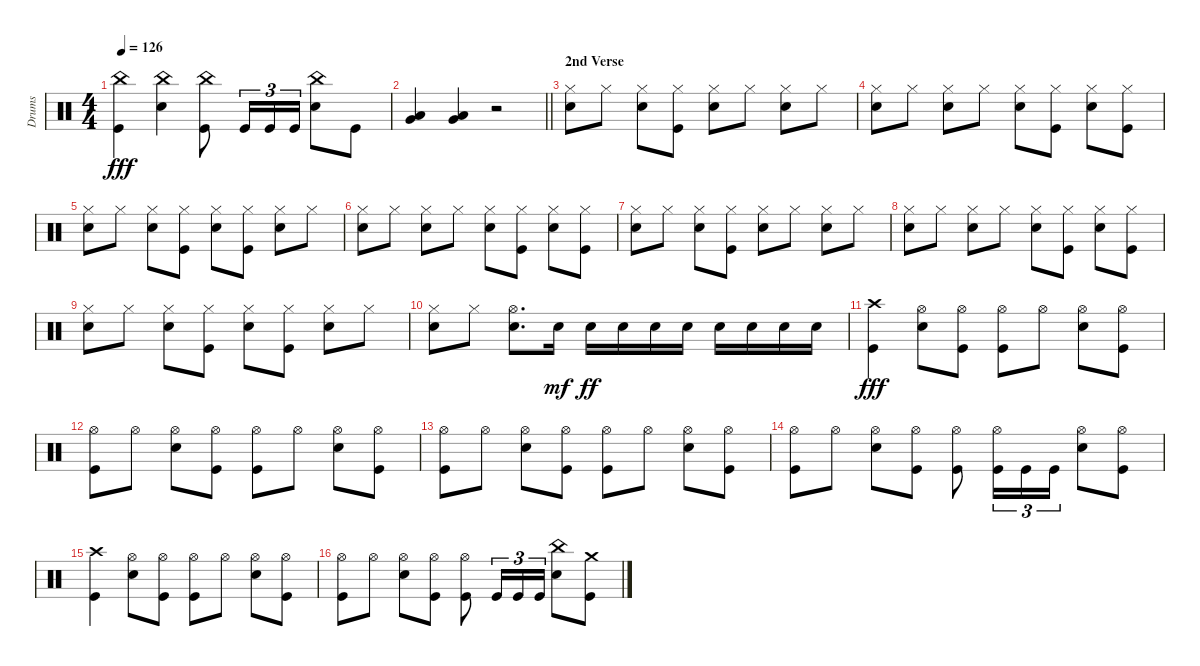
\track ("Drums" "Drums") {instrument percussion}
\staff {score}
\articulation defaults
\ts (4 4)
\tempo 126
\clef neutral
\ks c
("China (hit)" "Kick (hit)").4{dy fff} ("China (hit)" "Snare (hit) 2").4 ("China (hit)" "Kick (hit)").8 "Kick (hit)".16{tu (3 2)} "Kick (hit)".16{tu (3 2)} "Kick (hit)".16{tu (3 2)} ("China (hit)" "Snare (hit) 2").8 "Kick (hit)".8 |
\barLineRight lightlight
("Very Low Tom (hit)" "Low Floor Tom (hit)").4 ("Very Low Tom (hit)" "Low Floor Tom (hit)").4 r.2 |
\section ("" "2nd Verse")
("Hi-Hat (closed)" "Snare (hit) 2").8 "Hi-Hat (closed)".8 ("Hi-Hat (closed)" "Snare (hit) 2").8 ("Hi-Hat (closed)" "Kick (hit)").8 ("Hi-Hat (closed)" "Snare (hit) 2").8 "Hi-Hat (closed)".8 ("Hi-Hat (closed)" "Snare (hit) 2").8 "Hi-Hat (closed)".8 |
("Hi-Hat (closed)" "Snare (hit) 2").8 "Hi-Hat (closed)".8 ("Hi-Hat (closed)" "Snare (hit) 2").8 "Hi-Hat (closed)".8 ("Hi-Hat (closed)" "Snare (hit) 2").8 ("Hi-Hat (closed)" "Kick (hit)").8 ("Hi-Hat (closed)" "Snare (hit) 2").8 ("Hi-Hat (closed)" "Kick (hit)").8 |
("Hi-Hat (closed)" "Snare (hit) 2").8 "Hi-Hat (closed)".8 ("Hi-Hat (closed)" "Snare (hit) 2").8 ("Hi-Hat (closed)" "Kick (hit)").8 ("Hi-Hat (closed)" "Snare (hit) 2").8 ("Hi-Hat (closed)" "Kick (hit)").8 ("Hi-Hat (closed)" "Snare (hit) 2").8 "Hi-Hat (closed)".8 |
("Hi-Hat (closed)" "Snare (hit) 2").8 "Hi-Hat (closed)".8 ("Hi-Hat (closed)" "Snare (hit) 2").8 "Hi-Hat (closed)".8 ("Hi-Hat (closed)" "Snare (hit) 2").8 ("Hi-Hat (closed)" "Kick (hit)").8 ("Hi-Hat (closed)" "Snare (hit) 2").8 ("Hi-Hat (closed)" "Kick (hit)").8 |
("Hi-Hat (closed)" "Snare (hit) 2").8 "Hi-Hat (closed)".8 ("Hi-Hat (closed)" "Snare (hit) 2").8 ("Hi-Hat (closed)" "Kick (hit)").8 ("Hi-Hat (closed)" "Snare (hit) 2").8 "Hi-Hat (closed)".8 ("Hi-Hat (closed)" "Snare (hit) 2").8 "Hi-Hat (closed)".8 |
("Hi-Hat (closed)" "Snare (hit) 2").8 "Hi-Hat (closed)".8 ("Hi-Hat (closed)" "Snare (hit) 2").8 "Hi-Hat (closed)".8 ("Hi-Hat (closed)" "Snare (hit) 2").8 ("Hi-Hat (closed)" "Kick (hit)").8 ("Hi-Hat (closed)" "Snare (hit) 2").8 ("Hi-Hat (closed)" "Kick (hit)").8 |
("Hi-Hat (closed)" "Snare (hit) 2").8 "Hi-Hat (closed)".8 ("Hi-Hat (closed)" "Snare (hit) 2").8 ("Hi-Hat (closed)" "Kick (hit)").8 ("Hi-Hat (closed)" "Snare (hit) 2").8 ("Hi-Hat (closed)" "Kick (hit)").8 ("Hi-Hat (closed)" "Snare (hit) 2").8 "Hi-Hat (closed)".8 |
("Hi-Hat (closed)" "Snare (hit) 2").8 "Hi-Hat (closed)".8 ("Hi-Hat (open)" "Snare (hit) 2").8{d} "Snare (hit) 2".16{dy mf} "Snare (hit) 2".16{dy ff} "Snare (hit) 2".16 "Snare (hit) 2".16 "Snare (hit) 2".16 "Snare (hit) 2".16 "Snare (hit) 2".16 "Snare (hit) 2".16 "Snare (hit) 2".16 |
("Crash high (hit)" "Kick (hit)").4{dy fff} ("Hi-Hat (open)" "Snare (hit) 2").8 ("Hi-Hat (open)" "Kick (hit)").8 ("Hi-Hat (open)" "Kick (hit)").8 "Hi-Hat (open)".8 ("Hi-Hat (open)" "Snare (hit) 2").8 ("Hi-Hat (open)" "Kick (hit)").8 |
("Hi-Hat (open)" "Kick (hit)").8 "Hi-Hat (open)".8 ("Hi-Hat (open)" "Snare (hit) 2").8 ("Hi-Hat (open)" "Kick (hit)").8 ("Hi-Hat (open)" "Kick (hit)").8 "Hi-Hat (open)".8 ("Hi-Hat (open)" "Snare (hit) 2").8 ("Hi-Hat (open)" "Kick (hit)").8 |
("Hi-Hat (open)" "Kick (hit)").8 "Hi-Hat (open)".8 ("Hi-Hat (open)" "Snare (hit) 2").8 ("Hi-Hat (open)" "Kick (hit)").8 ("Hi-Hat (open)" "Kick (hit)").8 "Hi-Hat (open)".8 ("Hi-Hat (open)" "Snare (hit) 2").8 ("Hi-Hat (open)" "Kick (hit)").8 |
("Hi-Hat (open)" "Kick (hit)").8 "Hi-Hat (open)".8 ("Hi-Hat (open)" "Snare (hit) 2").8 ("Hi-Hat (open)" "Kick (hit)").8 ("Hi-Hat (open)" "Kick (hit)").8 ("Hi-Hat (open)" "Kick (hit)").16{tu (3 2)} "Kick (hit)".16{tu (3 2)} "Kick (hit)".16{tu (3 2)} ("Hi-Hat (open)" "Snare (hit) 2").8 ("Hi-Hat (open)" "Kick (hit)").8 |
("Crash high (hit)" "Kick (hit)").4 ("Hi-Hat (open)" "Snare (hit) 2").8 ("Hi-Hat (open)" "Kick (hit)").8 ("Hi-Hat (open)" "Kick (hit)").8 "Hi-Hat (open)".8 ("Hi-Hat (open)" "Snare (hit) 2").8 ("Hi-Hat (open)" "Kick (hit)").8 |
("Hi-Hat (open)" "Kick (hit)").8 "Hi-Hat (open)".8 ("Hi-Hat (open)" "Snare (hit) 2").8 ("Hi-Hat (open)" "Kick (hit)").8 ("Hi-Hat (open)" "Kick (hit)").8 "Kick (hit)".16{tu (3 2)} "Kick (hit)".16{tu (3 2)} "Kick (hit)".16{tu (3 2)} ("China (hit)" "Snare (hit) 2").8 ("Crash medium (hit)" "Kick (hit)").8
